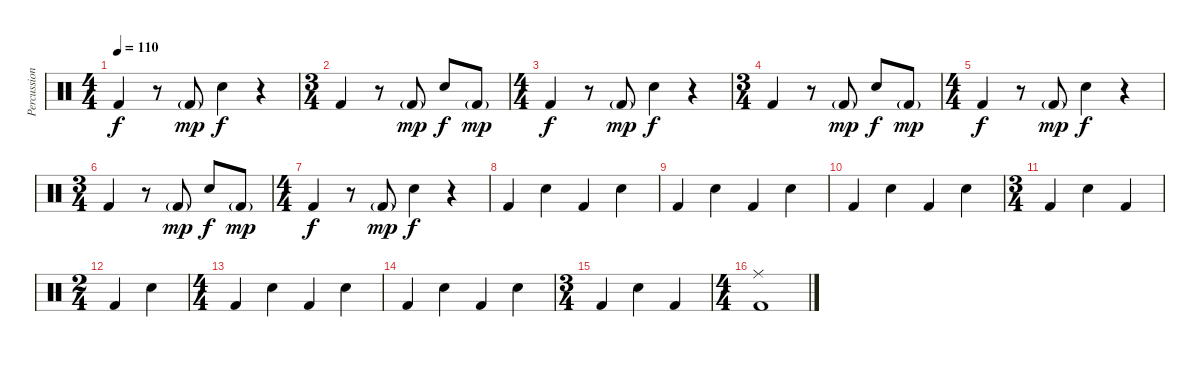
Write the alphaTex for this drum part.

\track ("Percussion" "Percussion") {instrument percussion}
\staff {score}
\articulation defaults
\ts (4 4)
\tempo 110
\clef neutral
\ks c "Kick (hit) 2".4{dy f}
r.8 "Kick (hit) 2"{g}.8{dy mp} "Snare (hit) 2".4{dy f} r.4 |
\ts (3 4)
"Kick (hit) 2".4 r.8 "Kick (hit) 2"{g}.8{dy mp} "Snare (hit) 2".8{dy f} "Kick (hit) 2"{g}.8{dy mp} |
\ts (4 4)
"Kick (hit) 2".4{dy f} r.8 "Kick (hit) 2"{g}.8{dy mp} "Snare (hit) 2".4{dy f} r.4 |
\ts (3 4)
"Kick (hit) 2".4 r.8 "Kick (hit) 2"{g}.8{dy mp} "Snare (hit) 2".8{dy f} "Kick (hit) 2"{g}.8{dy mp} |
\ts (4 4)
"Kick (hit) 2".4{dy f} r.8 "Kick (hit) 2"{g}.8{dy mp} "Snare (hit) 2".4{dy f} r.4 |
\ts (3 4)
"Kick (hit) 2".4 r.8 "Kick (hit) 2"{g}.8{dy mp} "Snare (hit) 2".8{dy f} "Kick (hit) 2"{g}.8{dy mp} |
\ts (4 4)
"Kick (hit) 2".4{dy f} r.8 "Kick (hit) 2"{g}.8{dy mp} "Snare (hit) 2".4{dy f} r.4 |
"Kick (hit) 2".4 "Snare (hit) 2".4 "Kick (hit) 2".4 "Snare (hit) 2".4 |
"Kick (hit) 2".4 "Snare (hit) 2".4 "Kick (hit) 2".4 "Snare (hit) 2".4 |
"Kick (hit) 2".4 "Snare (hit) 2".4 "Kick (hit) 2".4 "Snare (hit) 2".4 |
\ts (3 4)
"Kick (hit) 2".4 "Snare (hit) 2".4 "Kick (hit) 2".4 |
\ts (2 4)
"Kick (hit) 2".4 "Snare (hit) 2".4 |
\ts (4 4)
"Kick (hit) 2".4 "Snare (hit) 2".4 "Kick (hit) 2".4 "Snare (hit) 2".4 |
"Kick (hit) 2".4 "Snare (hit) 2".4 "Kick (hit) 2".4 "Snare (hit) 2".4 |
\ts (3 4)
"Kick (hit) 2".4 "Snare (hit) 2".4 "Kick (hit) 2".4 |
\ts (4 4)
("Ride (middle)" "Kick (hit) 2").1
